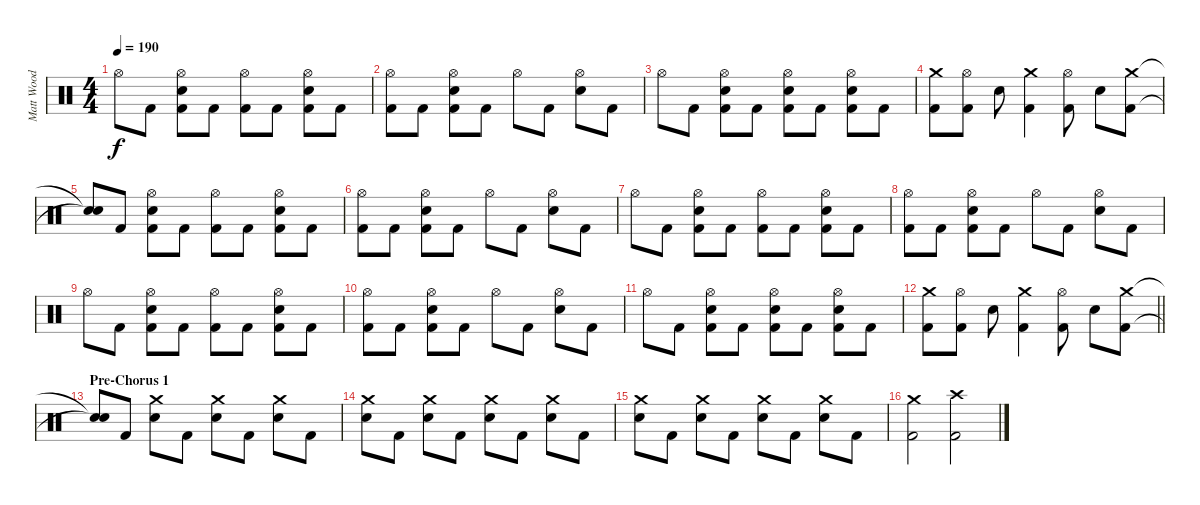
\track ("Matt Wood" "Matt Wood") {instrument percussion}
\staff {score}
\articulation defaults
\ts (4 4)
\tempo 190
\clef neutral
\ks c "Hi-Hat (open)".8{dy f} "Kick (hit) 2".8
("Hi-Hat (open)" "Snare (hit) 2" "Kick (hit) 2").8 "Kick (hit) 2".8 ("Hi-Hat (open)" "Kick (hit) 2").8 "Kick (hit) 2".8 ("Hi-Hat (open)" "Snare (hit) 2" "Kick (hit) 2").8 "Kick (hit) 2".8 |
("Hi-Hat (open)" "Kick (hit) 2").8 "Kick (hit) 2".8 ("Hi-Hat (open)" "Snare (hit) 2" "Kick (hit) 2").8 "Kick (hit) 2".8 "Hi-Hat (open)".8 "Kick (hit) 2".8 ("Hi-Hat (open)" "Snare (hit) 2").8 "Kick (hit) 2".8 |
"Hi-Hat (open)".8 "Kick (hit) 2".8 ("Hi-Hat (open)" "Snare (hit) 2" "Kick (hit) 2").8 "Kick (hit) 2".8 ("Hi-Hat (open)" "Snare (hit) 2" "Kick (hit) 2").8 "Kick (hit) 2".8 ("Hi-Hat (open)" "Snare (hit) 2" "Kick (hit) 2").8 "Kick (hit) 2".8 |
("Crash medium (hit)" "Kick (hit) 2").8 ("Hi-Hat (open)" "Kick (hit) 2").8 "Snare (hit) 2".8 ("Crash medium (hit)" "Kick (hit) 2").4 ("Hi-Hat (open)" "Kick (hit) 2").8 "Snare (hit) 2".8 ("Crash medium (hit)" "Kick (hit) 2").8 |
("Snare (hit)"{t} "Snare (hit)"{t}).8 "Kick (hit) 2".8 ("Hi-Hat (open)" "Snare (hit) 2" "Kick (hit) 2").8 "Kick (hit) 2".8 ("Hi-Hat (open)" "Kick (hit) 2").8 "Kick (hit) 2".8 ("Hi-Hat (open)" "Snare (hit) 2" "Kick (hit) 2").8 "Kick (hit) 2".8 |
("Hi-Hat (open)" "Kick (hit) 2").8 "Kick (hit) 2".8 ("Hi-Hat (open)" "Snare (hit) 2" "Kick (hit) 2").8 "Kick (hit) 2".8 "Hi-Hat (open)".8 "Kick (hit) 2".8 ("Hi-Hat (open)" "Snare (hit) 2").8 "Kick (hit) 2".8 |
"Hi-Hat (open)".8 "Kick (hit) 2".8 ("Hi-Hat (open)" "Snare (hit) 2" "Kick (hit) 2").8 "Kick (hit) 2".8 ("Hi-Hat (open)" "Kick (hit) 2").8 "Kick (hit) 2".8 ("Hi-Hat (open)" "Snare (hit) 2" "Kick (hit) 2").8 "Kick (hit) 2".8 |
("Hi-Hat (open)" "Kick (hit) 2").8 "Kick (hit) 2".8 ("Hi-Hat (open)" "Snare (hit) 2" "Kick (hit) 2").8 "Kick (hit) 2".8 "Hi-Hat (open)".8 "Kick (hit) 2".8 ("Hi-Hat (open)" "Snare (hit) 2").8 "Kick (hit) 2".8 |
"Hi-Hat (open)".8 "Kick (hit) 2".8 ("Hi-Hat (open)" "Snare (hit) 2" "Kick (hit) 2").8 "Kick (hit) 2".8 ("Hi-Hat (open)" "Kick (hit) 2").8 "Kick (hit) 2".8 ("Hi-Hat (open)" "Snare (hit) 2" "Kick (hit) 2").8 "Kick (hit) 2".8 |
("Hi-Hat (open)" "Kick (hit) 2").8 "Kick (hit) 2".8 ("Hi-Hat (open)" "Snare (hit) 2" "Kick (hit) 2").8 "Kick (hit) 2".8 "Hi-Hat (open)".8 "Kick (hit) 2".8 ("Hi-Hat (open)" "Snare (hit) 2").8 "Kick (hit) 2".8 |
"Hi-Hat (open)".8 "Kick (hit) 2".8 ("Hi-Hat (open)" "Snare (hit) 2" "Kick (hit) 2").8 "Kick (hit) 2".8 ("Hi-Hat (open)" "Snare (hit) 2" "Kick (hit) 2").8 "Kick (hit) 2".8 ("Hi-Hat (open)" "Snare (hit) 2" "Kick (hit) 2").8 "Kick (hit) 2".8 |
\barLineRight lightlight
("Crash medium (hit)" "Kick (hit) 2").8 ("Hi-Hat (open)" "Kick (hit) 2").8 "Snare (hit) 2".8 ("Crash medium (hit)" "Kick (hit) 2").4 ("Hi-Hat (open)" "Kick (hit) 2").8 "Snare (hit) 2".8 ("Crash medium (hit)" "Kick (hit) 2").8 |
\section ("" "Pre-Chorus 1")
("Snare (hit)"{t} "Snare (hit)"{t}).8 "Kick (hit) 2".8 ("Crash medium (hit)" "Snare (hit) 2").8 "Kick (hit) 2".8 ("Crash medium (hit)" "Snare (hit) 2").8 "Kick (hit) 2".8 ("Crash medium (hit)" "Snare (hit) 2").8 "Kick (hit) 2".8 |
("Crash medium (hit)" "Snare (hit) 2").8 "Kick (hit) 2".8 ("Crash medium (hit)" "Snare (hit) 2").8 "Kick (hit) 2".8 ("Crash medium (hit)" "Snare (hit) 2").8 "Kick (hit) 2".8 ("Crash medium (hit)" "Snare (hit) 2").8 "Kick (hit) 2".8 |
("Crash medium (hit)" "Snare (hit) 2").8 "Kick (hit) 2".8 ("Crash medium (hit)" "Snare (hit) 2").8 "Kick (hit) 2".8 ("Crash medium (hit)" "Snare (hit) 2").8 "Kick (hit) 2".8 ("Crash medium (hit)" "Snare (hit) 2").8 "Kick (hit) 2".8 |
("Crash medium (hit)" "Kick (hit) 2").2 ("Crash high (hit)" "Kick (hit) 2").2
